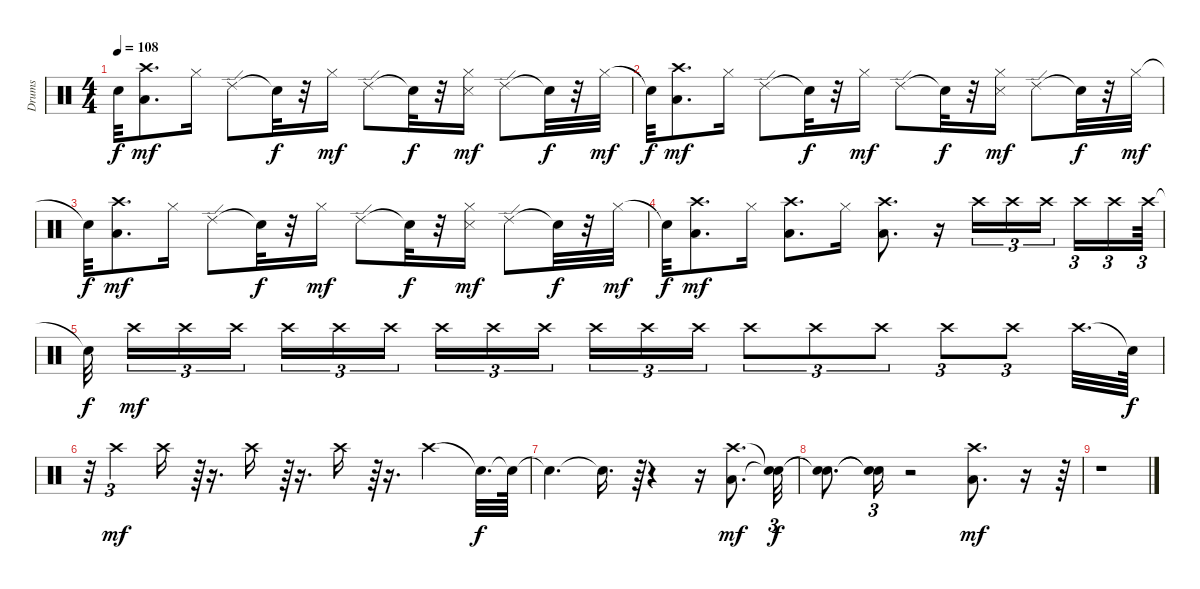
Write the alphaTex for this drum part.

\track ("Drums" "Drums") {instrument percussion}
\staff {score}
\articulation defaults
\ts (4 4)
\tempo 108
\clef neutral
\ks c "Snare (hit)"{t}.32{dy f}
("Crash high (hit)" "Low Floor Tom (hit)").8{d dy mf} "Hi-Hat (closed)".16 "Ride (edge) 2".8 "Snare (hit)"{t}.32{dy f} r.32 "Hi-Hat (closed)".16{dy mf} "Ride (edge) 2".8 "Snare (hit)"{t}.32{dy f} r.32 ("Metronome (hit)" "Hi-Hat (closed)").16{dy mf} "Ride (edge) 2".8 "Snare (hit)"{t}.32{dy f} r.32 "Hi-Hat (closed)".32{dy mf} |
"Snare (hit)"{t}.32{dy f} ("Crash high (hit)" "Low Floor Tom (hit)").8{d dy mf} "Hi-Hat (closed)".16 "Ride (edge) 2".8 "Snare (hit)"{t}.32{dy f} r.32 "Hi-Hat (closed)".16{dy mf} "Ride (edge) 2".8 "Snare (hit)"{t}.32{dy f} r.32 ("Metronome (hit)" "Hi-Hat (closed)").16{dy mf} "Ride (edge) 2".8 "Snare (hit)"{t}.32{dy f} r.32 "Hi-Hat (closed)".32{dy mf} |
"Snare (hit)"{t}.32{dy f} ("Crash high (hit)" "Low Floor Tom (hit)").8{d dy mf} "Hi-Hat (closed)".16 "Ride (edge) 2".8 "Snare (hit)"{t}.32{dy f} r.32 "Hi-Hat (closed)".16{dy mf} "Ride (edge) 2".8 "Snare (hit)"{t}.32{dy f} r.32 ("Metronome (hit)" "Hi-Hat (closed)").16{dy mf} "Ride (edge) 2".8 "Snare (hit)"{t}.32{dy f} r.32 "Hi-Hat (closed)".32{dy mf} |
"Snare (hit)"{t}.32{dy f} ("Crash high (hit)" "Low Floor Tom (hit)").8{d dy mf} "Hi-Hat (closed)".16 ("Crash high (hit)" "Low Floor Tom (hit)").8{d} "Hi-Hat (closed)".16 ("Crash high (hit)" "Low Floor Tom (hit)").8{d} r.16 "Crash high (hit)".16{tu (3 2)} "Crash high (hit)".16{tu (3 2)} "Crash high (hit)".16{tu (3 2)} "Crash high (hit)".16{tu (3 2)} "Crash high (hit)".16{tu (3 2)} "Crash high (hit)".64{tu (3 2)} |
"Snare (hit)"{t}.32{dy f} "Crash high (hit)".16{tu (3 2) dy mf} "Crash high (hit)".16{tu (3 2)} "Crash high (hit)".16{tu (3 2)} "Crash high (hit)".16{tu (3 2)} "Crash high (hit)".16{tu (3 2)} "Crash high (hit)".16{tu (3 2)} "Crash high (hit)".16{tu (3 2)} "Crash high (hit)".16{tu (3 2)} "Crash high (hit)".16{tu (3 2)} "Crash high (hit)".16{tu (3 2)} "Crash high (hit)".16{tu (3 2)} "Crash high (hit)".16{tu (3 2)} "Crash high (hit)".8{tu (3 2)} "Crash high (hit)".8{tu (3 2)} "Crash high (hit)".8{tu (3 2)} "Crash high (hit)".8{tu (3 2)} "Crash high (hit)".8{tu (3 2)} "Crash high (hit)".32{d} "Snare (hit)"{t}.64{dy f} |
r.32 "Crash high (hit)".4{tu (3 2) dy mf} "Crash high (hit)".16 r.64{tu (3 2)} r.16{d} "Crash high (hit)".16 r.64{tu (3 2)} r.16{d} "Crash high (hit)".16 r.64{tu (3 2)} r.16{d} "Crash high (hit)".4 "Snare (hit)"{t}.32{d dy f} "Snare (hit)"{t}.64 |
"Snare (hit)"{t}.4{d} "Snare (hit)"{t}.16{d} r.64{tu (3 2)} r.4 r.16 ("Crash high (hit)" "Low Floor Tom (hit)").8{d dy mf} ("Snare (hit)"{t} "Snare (hit)"{t}).32{tu (3 2) dy f} |
("Snare (hit)"{t} "Snare (hit)"{t}).8{d} ("Snare (hit)"{t} "Snare (hit)"{t}).16{tu (3 2)} r.2 ("Crash high (hit)" "Low Floor Tom (hit)").8{d dy mf} r.16 r.64 |
r.1
